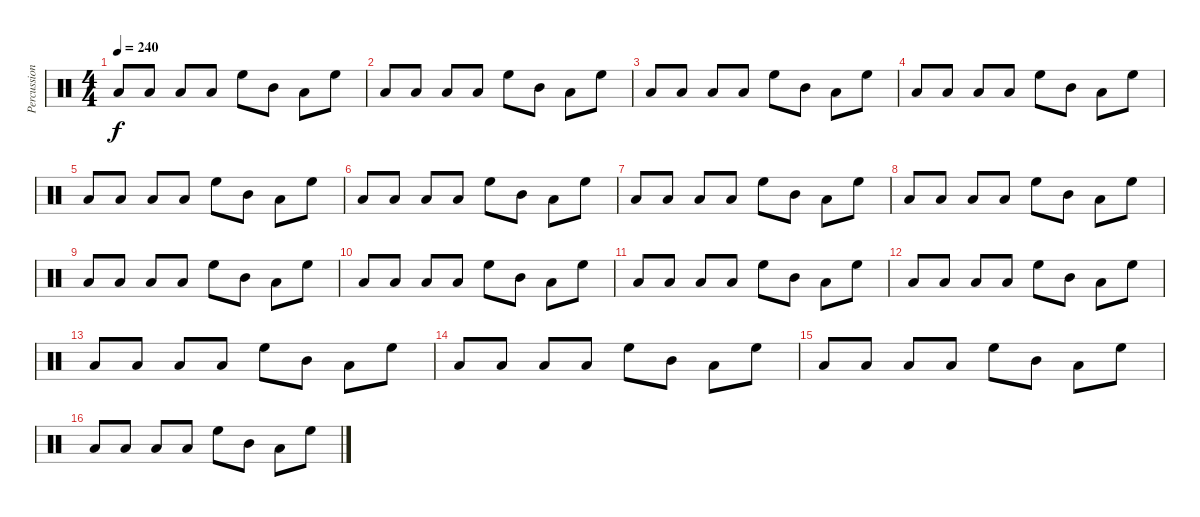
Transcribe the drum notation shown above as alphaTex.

\track ("Percussion" "Percussion") {instrument percussion}
\staff {score}
\articulation defaults
\ts (4 4)
\tempo 240
\clef neutral
\ks c "Low Floor Tom (hit)".8{dy f} "Low Floor Tom (hit)".8 "Low Floor Tom (hit)".8 "Low Tom (hit)".8 "High Floor Tom (hit)".8 "Mid Tom (hit)".8 "Low Floor Tom (hit)".8 "High Floor Tom (hit)".8
|
"Low Floor Tom (hit)".8 "Low Floor Tom (hit)".8 "Low Floor Tom (hit)".8 "Low Tom (hit)".8 "High Floor Tom (hit)".8 "Mid Tom (hit)".8 "Low Floor Tom (hit)".8 "High Floor Tom (hit)".8 |
"Low Floor Tom (hit)".8 "Low Floor Tom (hit)".8 "Low Floor Tom (hit)".8 "Low Tom (hit)".8 "High Floor Tom (hit)".8 "Mid Tom (hit)".8 "Low Floor Tom (hit)".8 "High Floor Tom (hit)".8 |
"Low Floor Tom (hit)".8 "Low Floor Tom (hit)".8 "Low Floor Tom (hit)".8 "Low Tom (hit)".8 "High Floor Tom (hit)".8 "Mid Tom (hit)".8 "Low Floor Tom (hit)".8 "High Floor Tom (hit)".8 |
"Low Floor Tom (hit)".8 "Low Floor Tom (hit)".8 "Low Floor Tom (hit)".8 "Low Tom (hit)".8 "High Floor Tom (hit)".8 "Mid Tom (hit)".8 "Low Floor Tom (hit)".8 "High Floor Tom (hit)".8 |
"Low Floor Tom (hit)".8 "Low Floor Tom (hit)".8 "Low Floor Tom (hit)".8 "Low Tom (hit)".8 "High Floor Tom (hit)".8 "Mid Tom (hit)".8 "Low Floor Tom (hit)".8 "High Floor Tom (hit)".8 |
"Low Floor Tom (hit)".8 "Low Floor Tom (hit)".8 "Low Floor Tom (hit)".8 "Low Tom (hit)".8 "High Floor Tom (hit)".8 "Mid Tom (hit)".8 "Low Floor Tom (hit)".8 "High Floor Tom (hit)".8 |
"Low Floor Tom (hit)".8 "Low Floor Tom (hit)".8 "Low Floor Tom (hit)".8 "Low Tom (hit)".8 "High Floor Tom (hit)".8 "Mid Tom (hit)".8 "Low Floor Tom (hit)".8 "High Floor Tom (hit)".8 |
"Low Floor Tom (hit)".8 "Low Floor Tom (hit)".8 "Low Floor Tom (hit)".8 "Low Tom (hit)".8 "High Floor Tom (hit)".8 "Mid Tom (hit)".8 "Low Floor Tom (hit)".8 "High Floor Tom (hit)".8 |
"Low Floor Tom (hit)".8 "Low Floor Tom (hit)".8 "Low Floor Tom (hit)".8 "Low Tom (hit)".8 "High Floor Tom (hit)".8 "Mid Tom (hit)".8 "Low Floor Tom (hit)".8 "High Floor Tom (hit)".8 |
"Low Floor Tom (hit)".8 "Low Floor Tom (hit)".8 "Low Floor Tom (hit)".8 "Low Tom (hit)".8 "High Floor Tom (hit)".8 "Mid Tom (hit)".8 "Low Floor Tom (hit)".8 "High Floor Tom (hit)".8 |
"Low Floor Tom (hit)".8 "Low Floor Tom (hit)".8 "Low Floor Tom (hit)".8 "Low Tom (hit)".8 "High Floor Tom (hit)".8 "Mid Tom (hit)".8 "Low Floor Tom (hit)".8 "High Floor Tom (hit)".8 |
"Low Floor Tom (hit)".8 "Low Floor Tom (hit)".8 "Low Floor Tom (hit)".8 "Low Tom (hit)".8 "High Floor Tom (hit)".8 "Mid Tom (hit)".8 "Low Floor Tom (hit)".8 "High Floor Tom (hit)".8 |
"Low Floor Tom (hit)".8 "Low Floor Tom (hit)".8 "Low Floor Tom (hit)".8 "Low Tom (hit)".8 "High Floor Tom (hit)".8 "Mid Tom (hit)".8 "Low Floor Tom (hit)".8 "High Floor Tom (hit)".8 |
"Low Floor Tom (hit)".8 "Low Floor Tom (hit)".8 "Low Floor Tom (hit)".8 "Low Tom (hit)".8 "High Floor Tom (hit)".8 "Mid Tom (hit)".8 "Low Floor Tom (hit)".8 "High Floor Tom (hit)".8 |
"Low Floor Tom (hit)".8 "Low Floor Tom (hit)".8 "Low Floor Tom (hit)".8 "Low Tom (hit)".8 "High Floor Tom (hit)".8 "Mid Tom (hit)".8 "Low Floor Tom (hit)".8 "High Floor Tom (hit)".8
